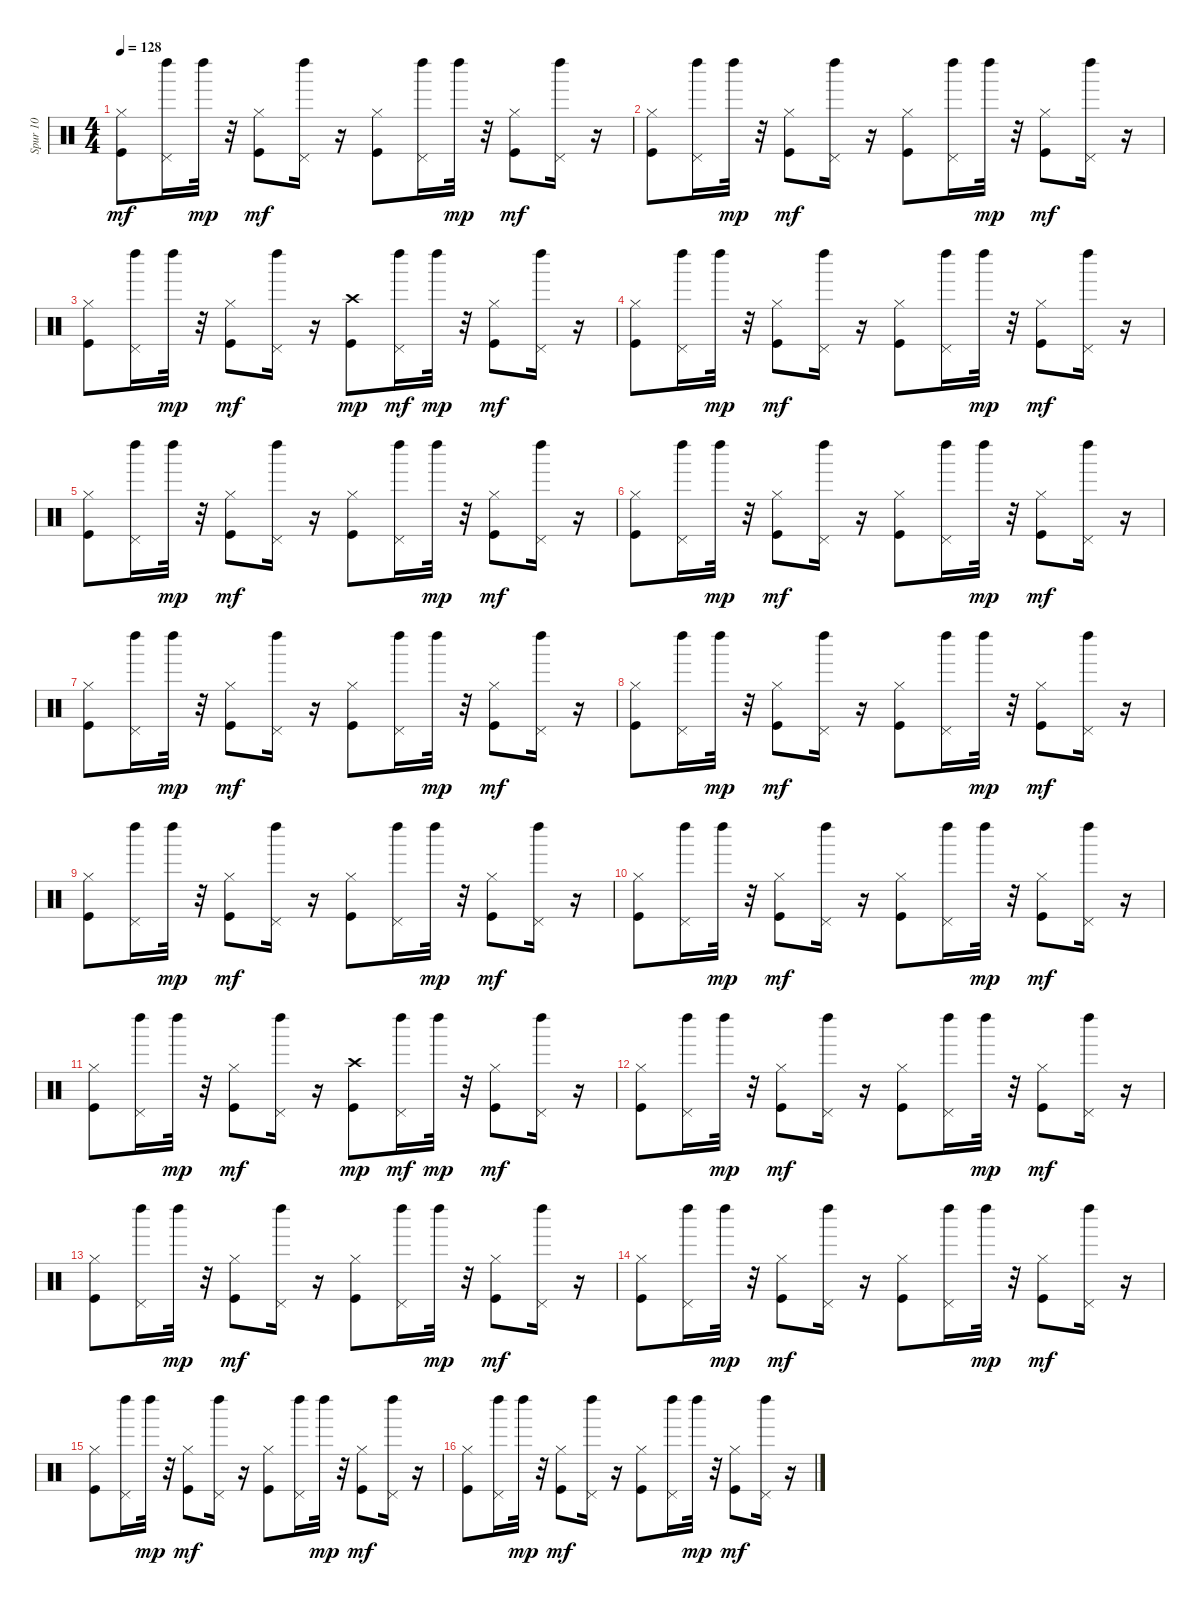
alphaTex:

\track ("Spur 10" "Spur 10") {instrument percussion}
\staff {score}
\articulation defaults
\ts (4 4)
\tempo 128
\clef neutral
\ks c
("Kick (hit)" "Hi-Hat (closed)").8{dy mf} ("Pedal Hi-Hat (hit)" "Left Maraca (hit)").16 "Left Maraca (hit)".32{dy mp} r.32 ("Kick (hit)" "Hi-Hat (closed)").8{dy mf} ("Pedal Hi-Hat (hit)" "Left Maraca (hit)").16 r.16 ("Kick (hit)" "Hi-Hat (closed)").8 ("Pedal Hi-Hat (hit)" "Left Maraca (hit)").16 "Left Maraca (hit)".32{dy mp} r.32 ("Kick (hit)" "Hi-Hat (closed)").8{dy mf} ("Pedal Hi-Hat (hit)" "Left Maraca (hit)").16 r.16 |
("Kick (hit)" "Hi-Hat (closed)").8 ("Pedal Hi-Hat (hit)" "Left Maraca (hit)").16 "Left Maraca (hit)".32{dy mp} r.32 ("Kick (hit)" "Hi-Hat (closed)").8{dy mf} ("Pedal Hi-Hat (hit)" "Left Maraca (hit)").16 r.16 ("Kick (hit)" "Hi-Hat (closed)").8 ("Pedal Hi-Hat (hit)" "Left Maraca (hit)").16 "Left Maraca (hit)".32{dy mp} r.32 ("Kick (hit)" "Hi-Hat (closed)").8{dy mf} ("Pedal Hi-Hat (hit)" "Left Maraca (hit)").16 r.16 |
("Kick (hit)" "Hi-Hat (closed)").8 ("Pedal Hi-Hat (hit)" "Left Maraca (hit)").16 "Left Maraca (hit)".32{dy mp} r.32 ("Kick (hit)" "Hi-Hat (closed)").8{dy mf} ("Pedal Hi-Hat (hit)" "Left Maraca (hit)").16 r.16 ("Kick (hit)" "Crash high (hit)").8{dy mp} ("Pedal Hi-Hat (hit)" "Left Maraca (hit)").16{dy mf} "Left Maraca (hit)".32{dy mp} r.32 ("Kick (hit)" "Hi-Hat (closed)").8{dy mf} ("Pedal Hi-Hat (hit)" "Left Maraca (hit)").16 r.16 |
("Kick (hit)" "Hi-Hat (closed)").8 ("Pedal Hi-Hat (hit)" "Left Maraca (hit)").16 "Left Maraca (hit)".32{dy mp} r.32 ("Kick (hit)" "Hi-Hat (closed)").8{dy mf} ("Pedal Hi-Hat (hit)" "Left Maraca (hit)").16 r.16 ("Kick (hit)" "Hi-Hat (closed)").8 ("Pedal Hi-Hat (hit)" "Left Maraca (hit)").16 "Left Maraca (hit)".32{dy mp} r.32 ("Kick (hit)" "Hi-Hat (closed)").8{dy mf} ("Pedal Hi-Hat (hit)" "Left Maraca (hit)").16 r.16 |
("Kick (hit)" "Hi-Hat (closed)").8 ("Pedal Hi-Hat (hit)" "Left Maraca (hit)").16 "Left Maraca (hit)".32{dy mp} r.32 ("Kick (hit)" "Hi-Hat (closed)").8{dy mf} ("Pedal Hi-Hat (hit)" "Left Maraca (hit)").16 r.16 ("Kick (hit)" "Hi-Hat (closed)").8 ("Pedal Hi-Hat (hit)" "Left Maraca (hit)").16 "Left Maraca (hit)".32{dy mp} r.32 ("Kick (hit)" "Hi-Hat (closed)").8{dy mf} ("Pedal Hi-Hat (hit)" "Left Maraca (hit)").16 r.16 |
("Kick (hit)" "Hi-Hat (closed)").8 ("Pedal Hi-Hat (hit)" "Left Maraca (hit)").16 "Left Maraca (hit)".32{dy mp} r.32 ("Kick (hit)" "Hi-Hat (closed)").8{dy mf} ("Pedal Hi-Hat (hit)" "Left Maraca (hit)").16 r.16 ("Kick (hit)" "Hi-Hat (closed)").8 ("Pedal Hi-Hat (hit)" "Left Maraca (hit)").16 "Left Maraca (hit)".32{dy mp} r.32 ("Kick (hit)" "Hi-Hat (closed)").8{dy mf} ("Pedal Hi-Hat (hit)" "Left Maraca (hit)").16 r.16 |
("Kick (hit)" "Hi-Hat (closed)").8 ("Pedal Hi-Hat (hit)" "Left Maraca (hit)").16 "Left Maraca (hit)".32{dy mp} r.32 ("Kick (hit)" "Hi-Hat (closed)").8{dy mf} ("Pedal Hi-Hat (hit)" "Left Maraca (hit)").16 r.16 ("Kick (hit)" "Hi-Hat (closed)").8 ("Pedal Hi-Hat (hit)" "Left Maraca (hit)").16 "Left Maraca (hit)".32{dy mp} r.32 ("Kick (hit)" "Hi-Hat (closed)").8{dy mf} ("Pedal Hi-Hat (hit)" "Left Maraca (hit)").16 r.16 |
("Kick (hit)" "Hi-Hat (closed)").8 ("Pedal Hi-Hat (hit)" "Left Maraca (hit)").16 "Left Maraca (hit)".32{dy mp} r.32 ("Kick (hit)" "Hi-Hat (closed)").8{dy mf} ("Pedal Hi-Hat (hit)" "Left Maraca (hit)").16 r.16 ("Kick (hit)" "Hi-Hat (closed)").8 ("Pedal Hi-Hat (hit)" "Left Maraca (hit)").16 "Left Maraca (hit)".32{dy mp} r.32 ("Kick (hit)" "Hi-Hat (closed)").8{dy mf} ("Pedal Hi-Hat (hit)" "Left Maraca (hit)").16 r.16 |
("Kick (hit)" "Hi-Hat (closed)").8 ("Pedal Hi-Hat (hit)" "Left Maraca (hit)").16 "Left Maraca (hit)".32{dy mp} r.32 ("Kick (hit)" "Hi-Hat (closed)").8{dy mf} ("Pedal Hi-Hat (hit)" "Left Maraca (hit)").16 r.16 ("Kick (hit)" "Hi-Hat (closed)").8 ("Pedal Hi-Hat (hit)" "Left Maraca (hit)").16 "Left Maraca (hit)".32{dy mp} r.32 ("Kick (hit)" "Hi-Hat (closed)").8{dy mf} ("Pedal Hi-Hat (hit)" "Left Maraca (hit)").16 r.16 |
("Kick (hit)" "Hi-Hat (closed)").8 ("Pedal Hi-Hat (hit)" "Left Maraca (hit)").16 "Left Maraca (hit)".32{dy mp} r.32 ("Kick (hit)" "Hi-Hat (closed)").8{dy mf} ("Pedal Hi-Hat (hit)" "Left Maraca (hit)").16 r.16 ("Kick (hit)" "Hi-Hat (closed)").8 ("Pedal Hi-Hat (hit)" "Left Maraca (hit)").16 "Left Maraca (hit)".32{dy mp} r.32 ("Kick (hit)" "Hi-Hat (closed)").8{dy mf} ("Pedal Hi-Hat (hit)" "Left Maraca (hit)").16 r.16 |
("Kick (hit)" "Hi-Hat (closed)").8 ("Pedal Hi-Hat (hit)" "Left Maraca (hit)").16 "Left Maraca (hit)".32{dy mp} r.32 ("Kick (hit)" "Hi-Hat (closed)").8{dy mf} ("Pedal Hi-Hat (hit)" "Left Maraca (hit)").16 r.16 ("Kick (hit)" "Crash high (hit)").8{dy mp} ("Pedal Hi-Hat (hit)" "Left Maraca (hit)").16{dy mf} "Left Maraca (hit)".32{dy mp} r.32 ("Kick (hit)" "Hi-Hat (closed)").8{dy mf} ("Pedal Hi-Hat (hit)" "Left Maraca (hit)").16 r.16 |
("Kick (hit)" "Hi-Hat (closed)").8 ("Pedal Hi-Hat (hit)" "Left Maraca (hit)").16 "Left Maraca (hit)".32{dy mp} r.32 ("Kick (hit)" "Hi-Hat (closed)").8{dy mf} ("Pedal Hi-Hat (hit)" "Left Maraca (hit)").16 r.16 ("Kick (hit)" "Hi-Hat (closed)").8 ("Pedal Hi-Hat (hit)" "Left Maraca (hit)").16 "Left Maraca (hit)".32{dy mp} r.32 ("Kick (hit)" "Hi-Hat (closed)").8{dy mf} ("Pedal Hi-Hat (hit)" "Left Maraca (hit)").16 r.16 |
("Kick (hit)" "Hi-Hat (closed)").8 ("Pedal Hi-Hat (hit)" "Left Maraca (hit)").16 "Left Maraca (hit)".32{dy mp} r.32 ("Kick (hit)" "Hi-Hat (closed)").8{dy mf} ("Pedal Hi-Hat (hit)" "Left Maraca (hit)").16 r.16 ("Kick (hit)" "Hi-Hat (closed)").8 ("Pedal Hi-Hat (hit)" "Left Maraca (hit)").16 "Left Maraca (hit)".32{dy mp} r.32 ("Kick (hit)" "Hi-Hat (closed)").8{dy mf} ("Pedal Hi-Hat (hit)" "Left Maraca (hit)").16 r.16 |
("Kick (hit)" "Hi-Hat (closed)").8 ("Pedal Hi-Hat (hit)" "Left Maraca (hit)").16 "Left Maraca (hit)".32{dy mp} r.32 ("Kick (hit)" "Hi-Hat (closed)").8{dy mf} ("Pedal Hi-Hat (hit)" "Left Maraca (hit)").16 r.16 ("Kick (hit)" "Hi-Hat (closed)").8 ("Pedal Hi-Hat (hit)" "Left Maraca (hit)").16 "Left Maraca (hit)".32{dy mp} r.32 ("Kick (hit)" "Hi-Hat (closed)").8{dy mf} ("Pedal Hi-Hat (hit)" "Left Maraca (hit)").16 r.16 |
("Kick (hit)" "Hi-Hat (closed)").8 ("Pedal Hi-Hat (hit)" "Left Maraca (hit)").16 "Left Maraca (hit)".32{dy mp} r.32 ("Kick (hit)" "Hi-Hat (closed)").8{dy mf} ("Pedal Hi-Hat (hit)" "Left Maraca (hit)").16 r.16 ("Kick (hit)" "Hi-Hat (closed)").8 ("Pedal Hi-Hat (hit)" "Left Maraca (hit)").16 "Left Maraca (hit)".32{dy mp} r.32 ("Kick (hit)" "Hi-Hat (closed)").8{dy mf} ("Pedal Hi-Hat (hit)" "Left Maraca (hit)").16 r.16 |
("Kick (hit)" "Hi-Hat (closed)").8 ("Pedal Hi-Hat (hit)" "Left Maraca (hit)").16 "Left Maraca (hit)".32{dy mp} r.32 ("Kick (hit)" "Hi-Hat (closed)").8{dy mf} ("Pedal Hi-Hat (hit)" "Left Maraca (hit)").16 r.16 ("Kick (hit)" "Hi-Hat (closed)").8 ("Pedal Hi-Hat (hit)" "Left Maraca (hit)").16 "Left Maraca (hit)".32{dy mp} r.32 ("Kick (hit)" "Hi-Hat (closed)").8{dy mf} ("Pedal Hi-Hat (hit)" "Left Maraca (hit)").16 r.16
